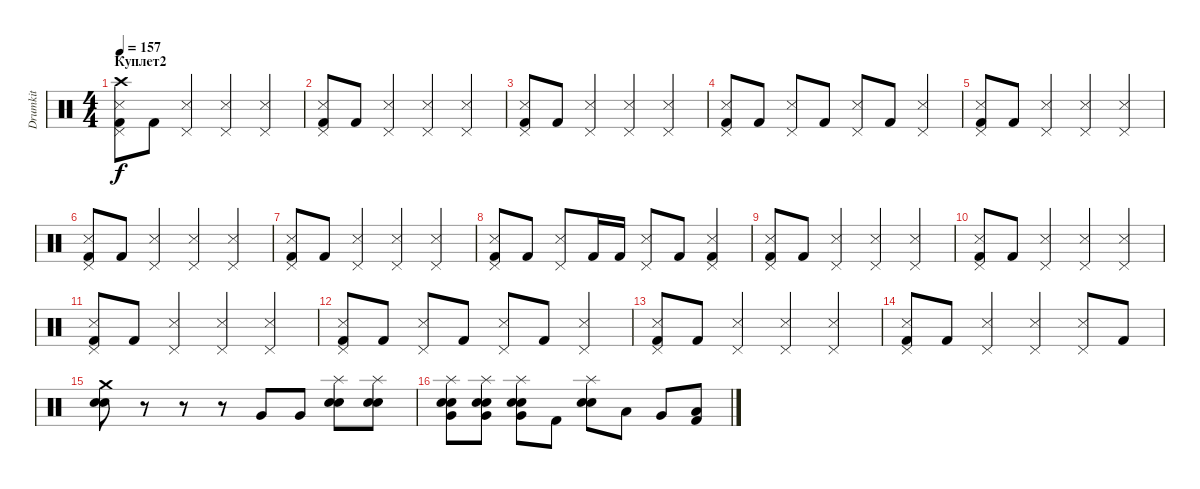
\track ("Drumkit" "Drumkit") {instrument percussion}
\staff {score}
\articulation defaults
\ts (4 4)
\section ("" "Куплет2")
\tempo 157
\clef neutral
\ks c
("Crash high (hit)" "Pedal Hi-Hat (hit)" "Snare (side stick) 3" "Kick (hit) 2").8{dy f} "Kick (hit) 2".8 ("Pedal Hi-Hat (hit)" "Snare (side stick) 3").4 ("Pedal Hi-Hat (hit)" "Snare (side stick) 3").4 ("Pedal Hi-Hat (hit)" "Snare (side stick) 3").4 |
("Pedal Hi-Hat (hit)" "Snare (side stick) 3" "Kick (hit) 2").8 "Kick (hit) 2".8 ("Pedal Hi-Hat (hit)" "Snare (side stick) 3").4 ("Pedal Hi-Hat (hit)" "Snare (side stick) 3").4 ("Pedal Hi-Hat (hit)" "Snare (side stick) 3").4 |
("Pedal Hi-Hat (hit)" "Snare (side stick) 3" "Kick (hit) 2").8 "Kick (hit) 2".8 ("Pedal Hi-Hat (hit)" "Snare (side stick) 3").4 ("Pedal Hi-Hat (hit)" "Snare (side stick) 3").4 ("Pedal Hi-Hat (hit)" "Snare (side stick) 3").4 |
("Pedal Hi-Hat (hit)" "Snare (side stick) 3" "Kick (hit) 2").8 "Kick (hit) 2".8 ("Pedal Hi-Hat (hit)" "Snare (side stick) 3").8 "Kick (hit) 2".8 ("Pedal Hi-Hat (hit)" "Snare (side stick) 3").8 "Kick (hit) 2".8 ("Pedal Hi-Hat (hit)" "Snare (side stick) 3").4 |
("Pedal Hi-Hat (hit)" "Snare (side stick) 3" "Kick (hit) 2").8 "Kick (hit) 2".8 ("Pedal Hi-Hat (hit)" "Snare (side stick) 3").4 ("Pedal Hi-Hat (hit)" "Snare (side stick) 3").4 ("Pedal Hi-Hat (hit)" "Snare (side stick) 3").4 |
("Pedal Hi-Hat (hit)" "Snare (side stick) 3" "Kick (hit) 2").8 "Kick (hit) 2".8 ("Pedal Hi-Hat (hit)" "Snare (side stick) 3").4 ("Pedal Hi-Hat (hit)" "Snare (side stick) 3").4 ("Pedal Hi-Hat (hit)" "Snare (side stick) 3").4 |
("Pedal Hi-Hat (hit)" "Snare (side stick) 3" "Kick (hit) 2").8 "Kick (hit) 2".8 ("Pedal Hi-Hat (hit)" "Snare (side stick) 3").4 ("Pedal Hi-Hat (hit)" "Snare (side stick) 3").4 ("Pedal Hi-Hat (hit)" "Snare (side stick) 3").4 |
("Pedal Hi-Hat (hit)" "Snare (side stick) 3" "Kick (hit) 2").8 "Kick (hit) 2".8 ("Pedal Hi-Hat (hit)" "Snare (side stick) 3").8 "Kick (hit) 2".16 "Kick (hit) 2".16 ("Pedal Hi-Hat (hit)" "Snare (side stick) 3").8 "Kick (hit) 2".8 ("Pedal Hi-Hat (hit)" "Snare (side stick) 3" "Kick (hit) 2").4 |
("Pedal Hi-Hat (hit)" "Snare (side stick) 3" "Kick (hit) 2").8 "Kick (hit) 2".8 ("Pedal Hi-Hat (hit)" "Snare (side stick) 3").4 ("Pedal Hi-Hat (hit)" "Snare (side stick) 3").4 ("Pedal Hi-Hat (hit)" "Snare (side stick) 3").4 |
("Pedal Hi-Hat (hit)" "Snare (side stick) 3" "Kick (hit) 2").8 "Kick (hit) 2".8 ("Pedal Hi-Hat (hit)" "Snare (side stick) 3").4 ("Pedal Hi-Hat (hit)" "Snare (side stick) 3").4 ("Pedal Hi-Hat (hit)" "Snare (side stick) 3").4 |
("Pedal Hi-Hat (hit)" "Snare (side stick) 3" "Kick (hit) 2").8 "Kick (hit) 2".8 ("Pedal Hi-Hat (hit)" "Snare (side stick) 3").4 ("Pedal Hi-Hat (hit)" "Snare (side stick) 3").4 ("Pedal Hi-Hat (hit)" "Snare (side stick) 3").4 |
("Pedal Hi-Hat (hit)" "Snare (side stick) 3" "Kick (hit) 2").8 "Kick (hit) 2".8 ("Pedal Hi-Hat (hit)" "Snare (side stick) 3").8 "Kick (hit) 2".8 ("Pedal Hi-Hat (hit)" "Snare (side stick) 3").8 "Kick (hit) 2".8 ("Pedal Hi-Hat (hit)" "Snare (side stick) 3").4 |
("Pedal Hi-Hat (hit)" "Snare (side stick) 3" "Kick (hit) 2").8 "Kick (hit) 2".8 ("Pedal Hi-Hat (hit)" "Snare (side stick) 3").4 ("Pedal Hi-Hat (hit)" "Snare (side stick) 3").4 ("Pedal Hi-Hat (hit)" "Snare (side stick) 3").4 |
("Pedal Hi-Hat (hit)" "Snare (side stick) 3" "Kick (hit) 2").8 "Kick (hit) 2".8 ("Pedal Hi-Hat (hit)" "Snare (side stick) 3").4 ("Pedal Hi-Hat (hit)" "Snare (side stick) 3").4 ("Pedal Hi-Hat (hit)" "Snare (side stick) 3").8 "Kick (hit) 2".8 |
("Crash medium (hit)" "Electric Snare (hit)" "Snare (hit) 2").8 r.8 r.8 r.8 "Very Low Tom (hit)".8 "Very Low Tom (hit)".8 ("Splash (hit)" "Electric Snare (hit)" "Snare (hit) 2").8 ("Splash (hit)" "Electric Snare (hit)" "Snare (hit) 2").8 |
("Splash (hit)" "Electric Snare (hit)" "Snare (hit) 2" "Very Low Tom (hit)").8 ("Splash (hit)" "Electric Snare (hit)" "Snare (hit) 2" "Very Low Tom (hit)").8 ("Splash (hit)" "Electric Snare (hit)" "Snare (hit) 2" "Very Low Tom (hit)").8 "Kick (hit) 2".8 ("Splash (hit)" "Electric Snare (hit)" "Snare (hit) 2").8 "Low Tom (hit)".8 "Very Low Tom (hit)".8 ("Low Floor Tom (hit)" "Kick (hit) 2").8
